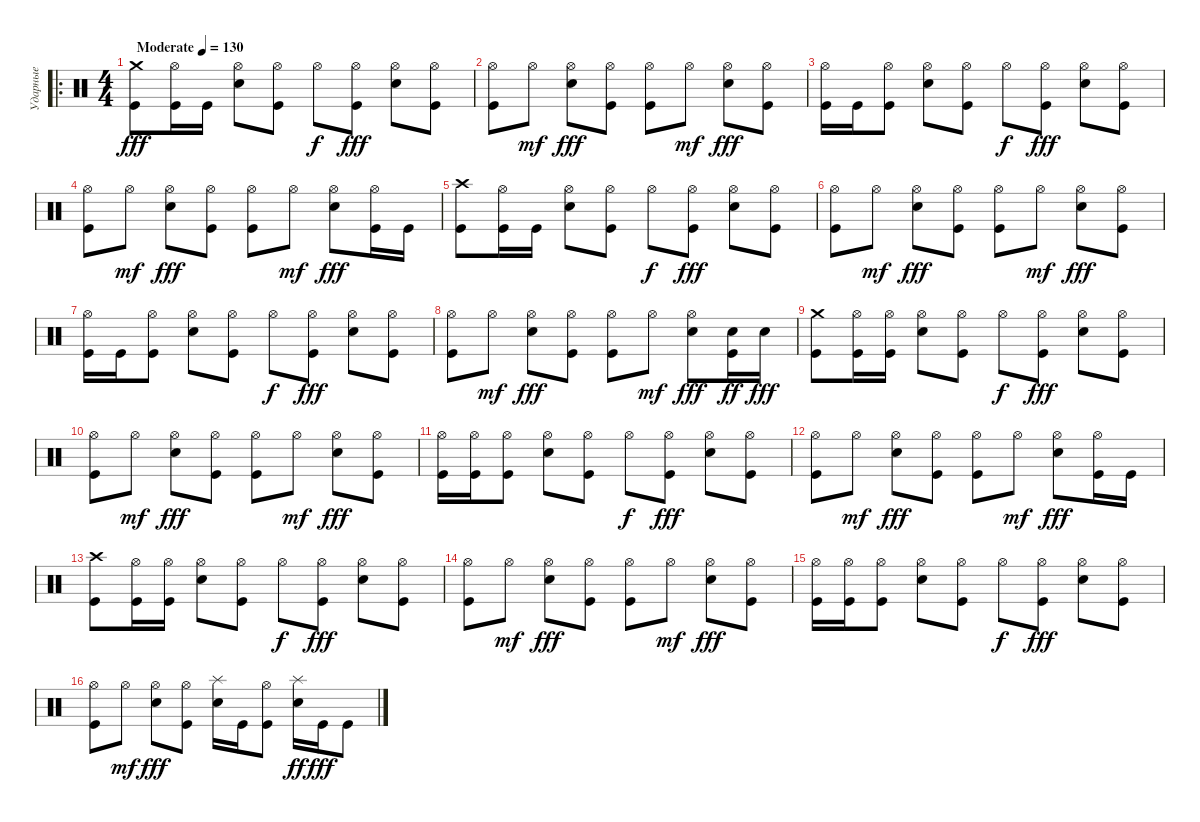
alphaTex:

\track ("Ударные" "Ударные") {instrument percussion}
\staff {score}
\articulation defaults
\ro
\ts (4 4)
\tempo (130 "Moderate")
\clef neutral
\ks c
("Crash medium (hit)" "Kick (hit)").8{dy fff} ("Hi-Hat (open)" "Kick (hit)").16 "Kick (hit)".16 ("Hi-Hat (open)" "Electric Snare (hit)").8 ("Hi-Hat (open)" "Kick (hit)").8 "Hi-Hat (open)".8{dy f} ("Hi-Hat (open)" "Kick (hit)").8{dy fff} ("Hi-Hat (open)" "Electric Snare (hit)").8 ("Hi-Hat (open)" "Kick (hit)").8 |
("Hi-Hat (open)" "Kick (hit)").8 "Hi-Hat (open)".8{dy mf} ("Hi-Hat (open)" "Electric Snare (hit)").8{dy fff} ("Hi-Hat (open)" "Kick (hit)").8 ("Hi-Hat (open)" "Kick (hit)").8 "Hi-Hat (open)".8{dy mf} ("Hi-Hat (open)" "Electric Snare (hit)").8{dy fff} ("Hi-Hat (open)" "Kick (hit)").8 |
("Hi-Hat (open)" "Kick (hit)").16 "Kick (hit)".16 ("Hi-Hat (open)" "Kick (hit)").8 ("Hi-Hat (open)" "Electric Snare (hit)").8 ("Hi-Hat (open)" "Kick (hit)").8 "Hi-Hat (open)".8{dy f} ("Hi-Hat (open)" "Kick (hit)").8{dy fff} ("Hi-Hat (open)" "Electric Snare (hit)").8 ("Hi-Hat (open)" "Kick (hit)").8 |
("Hi-Hat (open)" "Kick (hit)").8 "Hi-Hat (open)".8{dy mf} ("Hi-Hat (open)" "Electric Snare (hit)").8{dy fff} ("Hi-Hat (open)" "Kick (hit)").8 ("Hi-Hat (open)" "Kick (hit)").8 "Hi-Hat (open)".8{dy mf} ("Hi-Hat (open)" "Electric Snare (hit)").8{dy fff} ("Hi-Hat (open)" "Kick (hit)").16 "Kick (hit)".16 |
("Crash high (hit)" "Kick (hit)").8 ("Hi-Hat (open)" "Kick (hit)").16 "Kick (hit)".16 ("Hi-Hat (open)" "Electric Snare (hit)").8 ("Hi-Hat (open)" "Kick (hit)").8 "Hi-Hat (open)".8{dy f} ("Hi-Hat (open)" "Kick (hit)").8{dy fff} ("Hi-Hat (open)" "Electric Snare (hit)").8 ("Hi-Hat (open)" "Kick (hit)").8 |
("Hi-Hat (open)" "Kick (hit)").8 "Hi-Hat (open)".8{dy mf} ("Hi-Hat (open)" "Electric Snare (hit)").8{dy fff} ("Hi-Hat (open)" "Kick (hit)").8 ("Hi-Hat (open)" "Kick (hit)").8 "Hi-Hat (open)".8{dy mf} ("Hi-Hat (open)" "Electric Snare (hit)").8{dy fff} ("Hi-Hat (open)" "Kick (hit)").8 |
("Hi-Hat (open)" "Kick (hit)").16 "Kick (hit)".16 ("Hi-Hat (open)" "Kick (hit)").8 ("Hi-Hat (open)" "Electric Snare (hit)").8 ("Hi-Hat (open)" "Kick (hit)").8 "Hi-Hat (open)".8{dy f} ("Hi-Hat (open)" "Kick (hit)").8{dy fff} ("Hi-Hat (open)" "Electric Snare (hit)").8 ("Hi-Hat (open)" "Kick (hit)").8 |
("Hi-Hat (open)" "Kick (hit)").8 "Hi-Hat (open)".8{dy mf} ("Hi-Hat (open)" "Electric Snare (hit)").8{dy fff} ("Hi-Hat (open)" "Kick (hit)").8 ("Hi-Hat (open)" "Kick (hit)").8 "Hi-Hat (open)".8{dy mf} ("Hi-Hat (open)" "Electric Snare (hit)").8{dy fff} ("Electric Snare (hit)" "Kick (hit)").16{dy ff} "Electric Snare (hit)".16{dy fff} |
("Crash medium (hit)" "Kick (hit)").8 ("Hi-Hat (open)" "Kick (hit)").16 ("Hi-Hat (open)" "Kick (hit)").16 ("Hi-Hat (open)" "Electric Snare (hit)").8 ("Hi-Hat (open)" "Kick (hit)").8 "Hi-Hat (open)".8{dy f} ("Hi-Hat (open)" "Kick (hit)").8{dy fff} ("Hi-Hat (open)" "Electric Snare (hit)").8 ("Hi-Hat (open)" "Kick (hit)").8 |
("Hi-Hat (open)" "Kick (hit)").8 "Hi-Hat (open)".8{dy mf} ("Hi-Hat (open)" "Electric Snare (hit)").8{dy fff} ("Hi-Hat (open)" "Kick (hit)").8 ("Hi-Hat (open)" "Kick (hit)").8 "Hi-Hat (open)".8{dy mf} ("Hi-Hat (open)" "Electric Snare (hit)").8{dy fff} ("Hi-Hat (open)" "Kick (hit)").8 |
("Hi-Hat (open)" "Kick (hit)").16 ("Hi-Hat (open)" "Kick (hit)").16 ("Hi-Hat (open)" "Kick (hit)").8 ("Hi-Hat (open)" "Electric Snare (hit)").8 ("Hi-Hat (open)" "Kick (hit)").8 "Hi-Hat (open)".8{dy f} ("Hi-Hat (open)" "Kick (hit)").8{dy fff} ("Hi-Hat (open)" "Electric Snare (hit)").8 ("Hi-Hat (open)" "Kick (hit)").8 |
("Hi-Hat (open)" "Kick (hit)").8 "Hi-Hat (open)".8{dy mf} ("Hi-Hat (open)" "Electric Snare (hit)").8{dy fff} ("Hi-Hat (open)" "Kick (hit)").8 ("Hi-Hat (open)" "Kick (hit)").8 "Hi-Hat (open)".8{dy mf} ("Hi-Hat (open)" "Electric Snare (hit)").8{dy fff} ("Hi-Hat (open)" "Kick (hit)").16 "Kick (hit)".16 |
("Crash high (hit)" "Kick (hit)").8 ("Hi-Hat (open)" "Kick (hit)").16 ("Hi-Hat (open)" "Kick (hit)").16 ("Hi-Hat (open)" "Electric Snare (hit)").8 ("Hi-Hat (open)" "Kick (hit)").8 "Hi-Hat (open)".8{dy f} ("Hi-Hat (open)" "Kick (hit)").8{dy fff} ("Hi-Hat (open)" "Electric Snare (hit)").8 ("Hi-Hat (open)" "Kick (hit)").8 |
("Hi-Hat (open)" "Kick (hit)").8 "Hi-Hat (open)".8{dy mf} ("Hi-Hat (open)" "Electric Snare (hit)").8{dy fff} ("Hi-Hat (open)" "Kick (hit)").8 ("Hi-Hat (open)" "Kick (hit)").8 "Hi-Hat (open)".8{dy mf} ("Hi-Hat (open)" "Electric Snare (hit)").8{dy fff} ("Hi-Hat (open)" "Kick (hit)").8 |
("Hi-Hat (open)" "Kick (hit)").16 ("Hi-Hat (open)" "Kick (hit)").16 ("Hi-Hat (open)" "Kick (hit)").8 ("Hi-Hat (open)" "Electric Snare (hit)").8 ("Hi-Hat (open)" "Kick (hit)").8 "Hi-Hat (open)".8{dy f} ("Hi-Hat (open)" "Kick (hit)").8{dy fff} ("Hi-Hat (open)" "Electric Snare (hit)").8 ("Hi-Hat (open)" "Kick (hit)").8 |
("Hi-Hat (open)" "Kick (hit)").8 "Hi-Hat (open)".8{dy mf} ("Hi-Hat (open)" "Electric Snare (hit)").8{dy fff} ("Hi-Hat (open)" "Kick (hit)").8 ("Splash (hit)" "Electric Snare (hit)").16 "Kick (hit)".16 ("Hi-Hat (open)" "Kick (hit)").8 ("Splash (hit)" "Electric Snare (hit)").16{dy ff} "Kick (hit)".16{dy fff} "Kick (hit)".8
